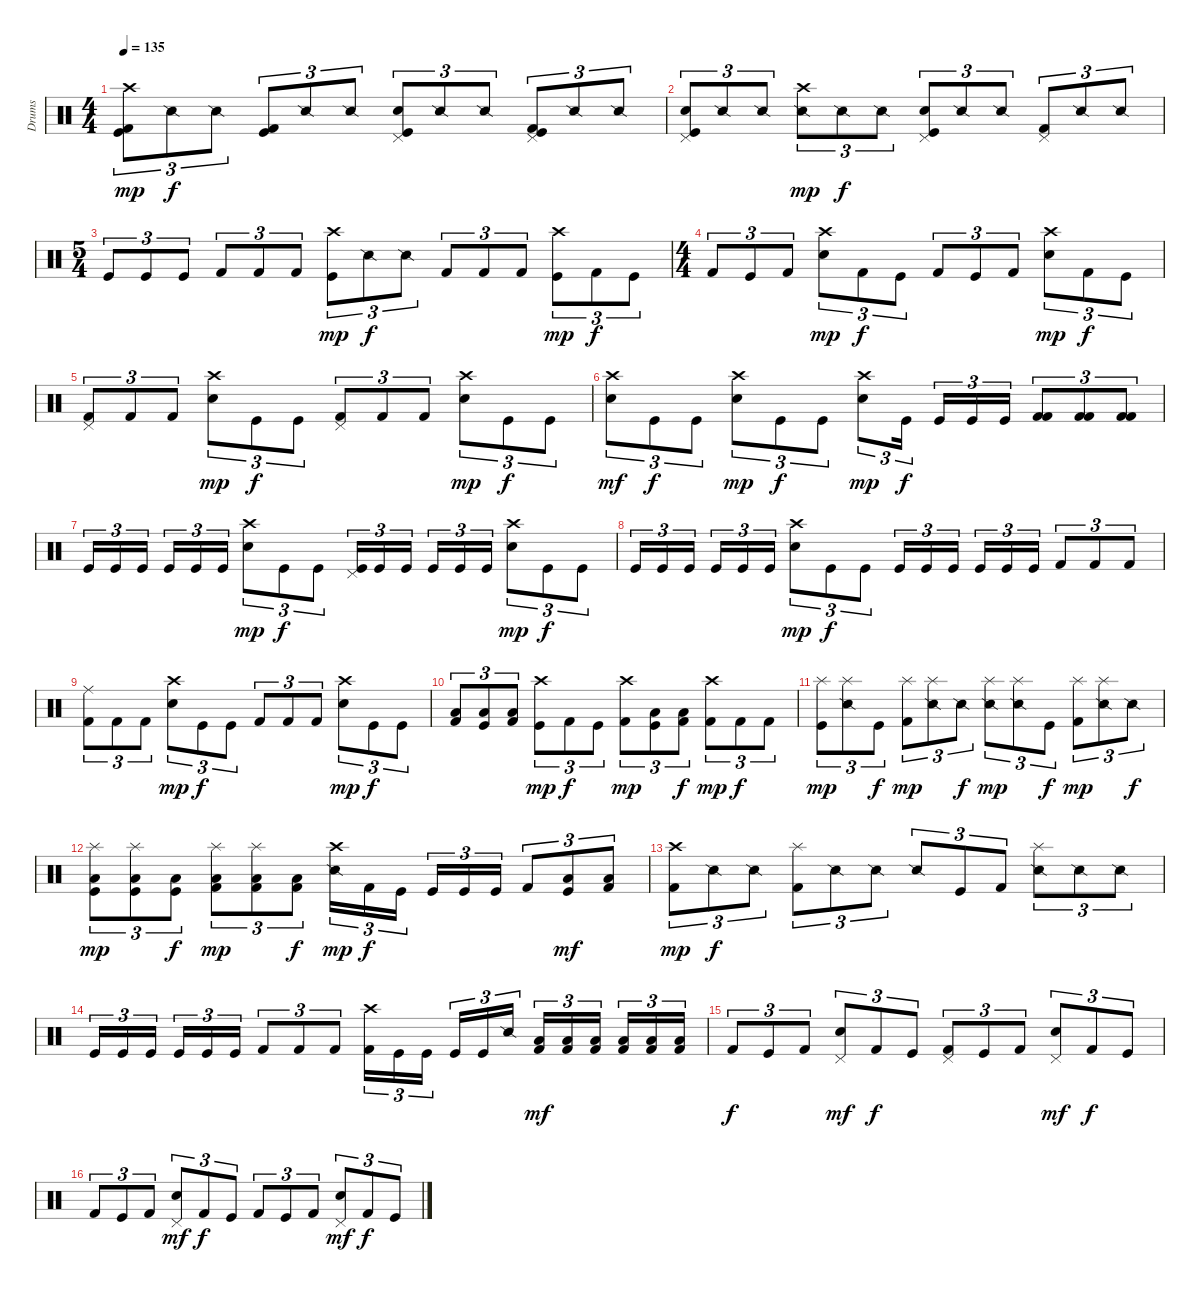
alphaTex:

\track ("Drums" "Drums") {instrument percussion}
\staff {score}
\articulation defaults
\ts (4 4)
\tempo 135
\clef neutral
\ks c
("Kick (hit)" "Kick (hit) 2" "Crash high (hit)").8{tu (3 2) dy mp} "Snare (side stick) 2".8{tu (3 2) dy f} "Snare (side stick) 2".8{tu (3 2)} ("Kick (hit)" "Kick (hit) 2").8{tu (3 2)} "Snare (side stick) 2".8{tu (3 2)} "Snare (side stick) 2".8{tu (3 2)} ("Kick (hit)" "Snare (hit) 2" "Pedal Hi-Hat (hit)").8{tu (3 2)} "Snare (side stick) 2".8{tu (3 2)} "Snare (side stick) 2".8{tu (3 2)} ("Kick (hit) 2" "Kick (hit)" "Pedal Hi-Hat (hit)").8{tu (3 2)} "Snare (side stick) 2".8{tu (3 2)} "Snare (side stick) 2".8{tu (3 2)} |
("Kick (hit)" "Pedal Hi-Hat (hit)" "Snare (hit) 2").8{tu (3 2)} "Snare (side stick) 2".8{tu (3 2)} "Snare (side stick) 2".8{tu (3 2)} ("Snare (side stick) 2" "Crash high (hit)").8{tu (3 2) dy mp} "Snare (side stick) 2".8{tu (3 2) dy f} "Snare (side stick) 2".8{tu (3 2)} ("Kick (hit)" "Pedal Hi-Hat (hit)" "Snare (hit) 2").8{tu (3 2)} "Snare (side stick) 2".8{tu (3 2)} "Snare (side stick) 2".8{tu (3 2)} ("Kick (hit) 2" "Pedal Hi-Hat (hit)").8{tu (3 2)} "Snare (side stick) 2".8{tu (3 2)} "Snare (side stick) 2".8{tu (3 2)} |
\ts (5 4)
"Kick (hit)".8{tu (3 2)} "Kick (hit)".8{tu (3 2)} "Kick (hit)".8{tu (3 2)} "Kick (hit) 2".8{tu (3 2)} "Kick (hit) 2".8{tu (3 2)} "Kick (hit) 2".8{tu (3 2)} ("Kick (hit)" "Crash high (hit)").8{tu (3 2) dy mp} "Snare (side stick) 2".8{tu (3 2) dy f} "Snare (side stick) 2".8{tu (3 2)} "Kick (hit) 2".8{tu (3 2)} "Kick (hit) 2".8{tu (3 2)} "Kick (hit) 2".8{tu (3 2)} ("Kick (hit)" "Crash high (hit)").8{tu (3 2) dy mp} "Kick (hit) 2".8{tu (3 2) dy f} "Kick (hit)".8{tu (3 2)} |
\ts (4 4)
"Kick (hit) 2".8{tu (3 2)} "Kick (hit)".8{tu (3 2)} "Kick (hit) 2".8{tu (3 2)} ("Snare (hit) 2" "Crash high (hit)").8{tu (3 2) dy mp} "Kick (hit) 2".8{tu (3 2) dy f} "Kick (hit)".8{tu (3 2)} "Kick (hit) 2".8{tu (3 2)} "Kick (hit)".8{tu (3 2)} "Kick (hit) 2".8{tu (3 2)} ("Snare (hit) 2" "Crash high (hit)").8{tu (3 2) dy mp} "Kick (hit) 2".8{tu (3 2) dy f} "Kick (hit)".8{tu (3 2)} |
("Kick (hit) 2" "Pedal Hi-Hat (hit)").8{tu (3 2)} "Kick (hit) 2".8{tu (3 2)} "Kick (hit) 2".8{tu (3 2)} ("Snare (hit) 2" "Crash high (hit)").8{tu (3 2) dy mp} "Kick (hit)".8{tu (3 2) dy f} "Kick (hit)".8{tu (3 2)} ("Kick (hit) 2" "Pedal Hi-Hat (hit)").8{tu (3 2)} "Kick (hit) 2".8{tu (3 2)} "Kick (hit) 2".8{tu (3 2)} ("Snare (hit) 2" "Crash high (hit)").8{tu (3 2) dy mp} "Kick (hit)".8{tu (3 2) dy f} "Kick (hit)".8{tu (3 2)} |
("Snare (hit) 2" "Crash high (hit)").8{tu (3 2) dy mf} "Kick (hit)".8{tu (3 2) dy f} "Kick (hit)".8{tu (3 2)} ("Snare (hit) 2" "Crash high (hit)").8{tu (3 2) dy mp} "Kick (hit)".8{tu (3 2) dy f} "Kick (hit)".8{tu (3 2)} ("Snare (hit) 2" "Crash high (hit)").8{tu (3 2) dy mp} "Kick (hit)".16{tu (3 2) dy f} "Kick (hit)".16{tu (3 2)} "Kick (hit)".16{tu (3 2)} "Kick (hit)".16{tu (3 2)} ("Kick (hit) 2" "Kick (hit) 2").8{tu (3 2)} ("Kick (hit) 2" "Kick (hit) 2").8{tu (3 2)} ("Kick (hit) 2" "Kick (hit) 2").8{tu (3 2)} |
"Kick (hit)".16{tu (3 2)} "Kick (hit)".16{tu (3 2)} "Kick (hit)".16{tu (3 2)} "Kick (hit)".16{tu (3 2)} "Kick (hit)".16{tu (3 2)} "Kick (hit)".16{tu (3 2)} ("Snare (hit) 2" "Crash high (hit)").8{tu (3 2) dy mp} "Kick (hit)".8{tu (3 2) dy f} "Kick (hit)".8{tu (3 2)} ("Kick (hit)" "Pedal Hi-Hat (hit)").16{tu (3 2)} "Kick (hit)".16{tu (3 2)} "Kick (hit)".16{tu (3 2)} "Kick (hit)".16{tu (3 2)} "Kick (hit)".16{tu (3 2)} "Kick (hit)".16{tu (3 2)} ("Snare (hit) 2" "Crash high (hit)").8{tu (3 2) dy mp} "Kick (hit)".8{tu (3 2) dy f} "Kick (hit)".8{tu (3 2)} |
"Kick (hit)".16{tu (3 2)} "Kick (hit)".16{tu (3 2)} "Kick (hit)".16{tu (3 2)} "Kick (hit)".16{tu (3 2)} "Kick (hit)".16{tu (3 2)} "Kick (hit)".16{tu (3 2)} ("Snare (hit) 2" "Crash high (hit)").8{tu (3 2) dy mp} "Kick (hit)".8{tu (3 2) dy f} "Kick (hit)".8{tu (3 2)} "Kick (hit)".16{tu (3 2)} "Kick (hit)".16{tu (3 2)} "Kick (hit)".16{tu (3 2)} "Kick (hit)".16{tu (3 2)} "Kick (hit)".16{tu (3 2)} "Kick (hit)".16{tu (3 2)} "Kick (hit) 2".8{tu (3 2)} "Kick (hit) 2".8{tu (3 2)} "Kick (hit) 2".8{tu (3 2)} |
("Kick (hit) 2" "Ride (middle)").8{tu (3 2)} "Kick (hit) 2".8{tu (3 2)} "Kick (hit) 2".8{tu (3 2)} ("Snare (hit) 2" "Crash high (hit)").8{tu (3 2) dy mp} "Kick (hit)".8{tu (3 2) dy f} "Kick (hit)".8{tu (3 2)} "Kick (hit) 2".8{tu (3 2)} "Kick (hit) 2".8{tu (3 2)} "Kick (hit) 2".8{tu (3 2)} ("Snare (hit) 2" "Crash high (hit)").8{tu (3 2) dy mp} "Kick (hit)".8{tu (3 2) dy f} "Kick (hit)".8{tu (3 2)} |
("Kick (hit) 2" "Low Floor Tom (hit)").8{tu (3 2)} ("Kick (hit)" "Low Floor Tom (hit)").8{tu (3 2)} ("Kick (hit) 2" "Low Floor Tom (hit)").8{tu (3 2)} ("Kick (hit)" "Crash high (hit)").8{tu (3 2) dy mp} "Kick (hit) 2".8{tu (3 2) dy f} "Kick (hit)".8{tu (3 2)} ("Kick (hit) 2" "Crash high (hit)").8{tu (3 2) dy mp} ("Kick (hit)" "Low Floor Tom (hit)").8{tu (3 2)} ("Kick (hit) 2" "Low Floor Tom (hit)").8{tu (3 2) dy f} ("Kick (hit) 2" "Crash high (hit)").8{tu (3 2) dy mp} "Kick (hit) 2".8{tu (3 2) dy f} "Kick (hit) 2".8{tu (3 2)} |
("Kick (hit)" "Splash (hit)").8{tu (3 2) dy mp} ("Snare (side stick) 2" "Splash (hit)").8{tu (3 2)} "Kick (hit)".8{tu (3 2) dy f} ("Kick (hit) 2" "Splash (hit)").8{tu (3 2) dy mp} ("Snare (side stick) 2" "Splash (hit)").8{tu (3 2)} "Snare (side stick) 2".8{tu (3 2) dy f} ("Snare (side stick) 2" "Splash (hit)").8{tu (3 2) dy mp} ("Snare (side stick) 2" "Splash (hit)").8{tu (3 2)} "Kick (hit)".8{tu (3 2) dy f} ("Kick (hit) 2" "Splash (hit)").8{tu (3 2) dy mp} ("Snare (side stick) 2" "Splash (hit)").8{tu (3 2)} "Snare (side stick) 2".8{tu (3 2) dy f} |
("Low Floor Tom (hit)" "Splash (hit)" "Kick (hit)").8{tu (3 2) dy mp} ("Low Floor Tom (hit)" "Splash (hit)" "Kick (hit)").8{tu (3 2)} ("Low Floor Tom (hit)" "Kick (hit)").8{tu (3 2) dy f} ("Low Floor Tom (hit)" "Splash (hit)" "Kick (hit) 2").8{tu (3 2) dy mp} ("Low Floor Tom (hit)" "Splash (hit)" "Kick (hit) 2").8{tu (3 2)} ("Low Floor Tom (hit)" "Kick (hit) 2").8{tu (3 2) dy f} ("Snare (side stick) 2" "Crash high (hit)").16{tu (3 2) dy mp} "Kick (hit) 2".16{tu (3 2) dy f} "Kick (hit)".16{tu (3 2)} "Kick (hit)".16{tu (3 2)} "Kick (hit)".16{tu (3 2)} "Kick (hit)".16{tu (3 2)} "Kick (hit) 2".8{tu (3 2)} ("Kick (hit)" "Low Floor Tom (hit)").8{tu (3 2) dy mf} ("Kick (hit) 2" "Low Floor Tom (hit)").8{tu (3 2)} |
("Kick (hit) 2" "Crash high (hit)").8{tu (3 2) dy mp} "Snare (side stick) 2".8{tu (3 2) dy f} "Snare (side stick) 2".8{tu (3 2)} ("Kick (hit) 2" "Splash (hit)").8{tu (3 2)} "Snare (side stick) 2".8{tu (3 2)} "Snare (side stick) 2".8{tu (3 2)} "Snare (side stick) 2".8{tu (3 2)} "Kick (hit)".8{tu (3 2)} "Kick (hit) 2".8{tu (3 2)} ("Snare (side stick) 2" "Splash (hit)").8{tu (3 2)} "Snare (side stick) 2".8{tu (3 2)} "Snare (side stick) 2".8{tu (3 2)} |
"Kick (hit)".16{tu (3 2)} "Kick (hit)".16{tu (3 2)} "Kick (hit)".16{tu (3 2)} "Kick (hit)".16{tu (3 2)} "Kick (hit)".16{tu (3 2)} "Kick (hit)".16{tu (3 2)} "Kick (hit) 2".8{tu (3 2)} "Kick (hit) 2".8{tu (3 2)} "Kick (hit) 2".8{tu (3 2)} ("Kick (hit) 2" "Crash high (hit)").16{tu (3 2)} "Kick (hit)".16{tu (3 2)} "Kick (hit)".16{tu (3 2)} "Kick (hit)".16{tu (3 2)} "Kick (hit)".16{tu (3 2)} "Snare (side stick) 2".16{tu (3 2)} ("Kick (hit) 2" "Low Floor Tom (hit)").16{tu (3 2) dy mf} ("Kick (hit) 2" "Low Floor Tom (hit)").16{tu (3 2)} ("Kick (hit) 2" "Low Floor Tom (hit)").16{tu (3 2)} ("Kick (hit) 2" "Low Floor Tom (hit)").16{tu (3 2)} ("Kick (hit) 2" "Low Floor Tom (hit)").16{tu (3 2)} ("Kick (hit) 2" "Low Floor Tom (hit)").16{tu (3 2)} |
"Kick (hit) 2".8{tu (3 2) dy f} "Kick (hit)".8{tu (3 2)} "Kick (hit) 2".8{tu (3 2)} ("Electric Snare (hit)" "Pedal Hi-Hat (hit)").8{tu (3 2) dy mf} "Kick (hit) 2".8{tu (3 2) dy f} "Kick (hit)".8{tu (3 2)} ("Kick (hit) 2" "Pedal Hi-Hat (hit)").8{tu (3 2)} "Kick (hit)".8{tu (3 2)} "Kick (hit) 2".8{tu (3 2)} ("Electric Snare (hit)" "Pedal Hi-Hat (hit)").8{tu (3 2) dy mf} "Kick (hit) 2".8{tu (3 2) dy f} "Kick (hit)".8{tu (3 2)} |
"Kick (hit) 2".8{tu (3 2)} "Kick (hit)".8{tu (3 2)} "Kick (hit) 2".8{tu (3 2)} ("Electric Snare (hit)" "Pedal Hi-Hat (hit)").8{tu (3 2) dy mf} "Kick (hit) 2".8{tu (3 2) dy f} "Kick (hit)".8{tu (3 2)} "Kick (hit) 2".8{tu (3 2)} "Kick (hit)".8{tu (3 2)} "Kick (hit) 2".8{tu (3 2)} ("Electric Snare (hit)" "Pedal Hi-Hat (hit)").8{tu (3 2) dy mf} "Kick (hit) 2".8{tu (3 2) dy f} "Kick (hit)".8{tu (3 2)}
